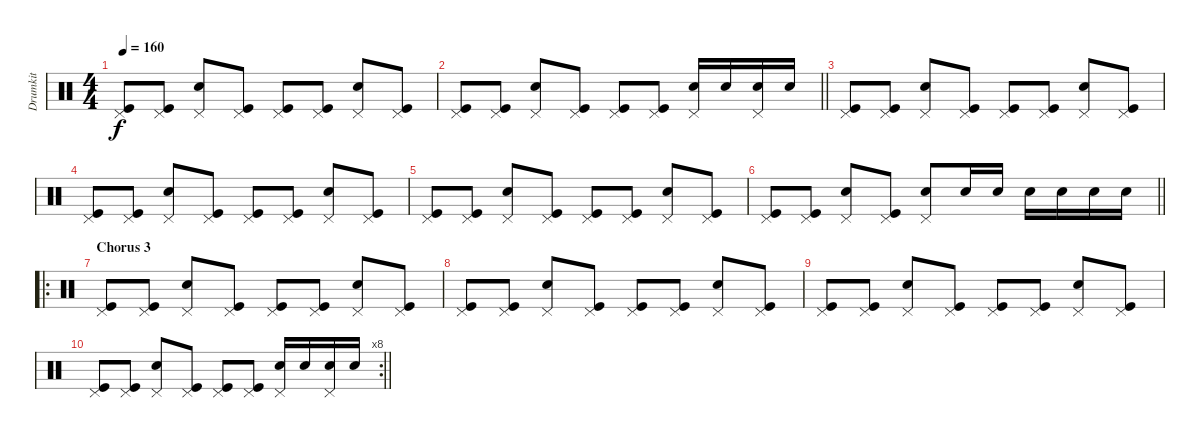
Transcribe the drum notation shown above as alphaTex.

\track ("Drumkit" "Drumkit") {instrument percussion}
\staff {score}
\articulation defaults
\ts (4 4)
\tempo 160
\clef neutral
\ks c
("Pedal Hi-Hat (hit)" "Kick (hit)").8{dy f} ("Pedal Hi-Hat (hit)" "Kick (hit)").8 ("Pedal Hi-Hat (hit)" "Snare (hit) 2").8 ("Pedal Hi-Hat (hit)" "Kick (hit)").8 ("Pedal Hi-Hat (hit)" "Kick (hit)").8 ("Pedal Hi-Hat (hit)" "Kick (hit)").8 ("Pedal Hi-Hat (hit)" "Snare (hit) 2").8 ("Pedal Hi-Hat (hit)" "Kick (hit)").8 |
\barLineRight lightlight
("Pedal Hi-Hat (hit)" "Kick (hit)").8 ("Pedal Hi-Hat (hit)" "Kick (hit)").8 ("Pedal Hi-Hat (hit)" "Snare (hit) 2").8 ("Pedal Hi-Hat (hit)" "Kick (hit)").8 ("Pedal Hi-Hat (hit)" "Kick (hit)").8 ("Pedal Hi-Hat (hit)" "Kick (hit)").8 ("Pedal Hi-Hat (hit)" "Snare (hit) 2").16 "Snare (hit) 2".16 ("Pedal Hi-Hat (hit)" "Snare (hit) 2").16 "Snare (hit) 2".16 |
("Pedal Hi-Hat (hit)" "Kick (hit)").8 ("Pedal Hi-Hat (hit)" "Kick (hit)").8 ("Pedal Hi-Hat (hit)" "Snare (hit) 2").8 ("Pedal Hi-Hat (hit)" "Kick (hit)").8 ("Pedal Hi-Hat (hit)" "Kick (hit)").8 ("Pedal Hi-Hat (hit)" "Kick (hit)").8 ("Pedal Hi-Hat (hit)" "Snare (hit) 2").8 ("Pedal Hi-Hat (hit)" "Kick (hit)").8 |
("Pedal Hi-Hat (hit)" "Kick (hit)").8 ("Pedal Hi-Hat (hit)" "Kick (hit)").8 ("Pedal Hi-Hat (hit)" "Snare (hit) 2").8 ("Pedal Hi-Hat (hit)" "Kick (hit)").8 ("Pedal Hi-Hat (hit)" "Kick (hit)").8 ("Pedal Hi-Hat (hit)" "Kick (hit)").8 ("Pedal Hi-Hat (hit)" "Snare (hit) 2").8 ("Pedal Hi-Hat (hit)" "Kick (hit)").8 |
("Pedal Hi-Hat (hit)" "Kick (hit)").8 ("Pedal Hi-Hat (hit)" "Kick (hit)").8 ("Pedal Hi-Hat (hit)" "Snare (hit) 2").8 ("Pedal Hi-Hat (hit)" "Kick (hit)").8 ("Pedal Hi-Hat (hit)" "Kick (hit)").8 ("Pedal Hi-Hat (hit)" "Kick (hit)").8 ("Pedal Hi-Hat (hit)" "Snare (hit) 2").8 ("Pedal Hi-Hat (hit)" "Kick (hit)").8 |
\barLineRight lightlight
("Pedal Hi-Hat (hit)" "Kick (hit)").8 ("Pedal Hi-Hat (hit)" "Kick (hit)").8 ("Pedal Hi-Hat (hit)" "Snare (hit) 2").8 ("Pedal Hi-Hat (hit)" "Kick (hit)").8 ("Pedal Hi-Hat (hit)" "Snare (hit) 2").8 "Snare (hit) 2".16 "Snare (hit) 2".16 "Snare (hit) 2".16 "Snare (hit) 2".16 "Snare (hit) 2".16 "Snare (hit) 2".16 |
\ro
\section ("" "Chorus 3")
("Pedal Hi-Hat (hit)" "Kick (hit)").8 ("Pedal Hi-Hat (hit)" "Kick (hit)").8 ("Pedal Hi-Hat (hit)" "Snare (hit) 2").8 ("Pedal Hi-Hat (hit)" "Kick (hit)").8 ("Pedal Hi-Hat (hit)" "Kick (hit)").8 ("Pedal Hi-Hat (hit)" "Kick (hit)").8 ("Pedal Hi-Hat (hit)" "Snare (hit) 2").8 ("Pedal Hi-Hat (hit)" "Kick (hit)").8 |
("Pedal Hi-Hat (hit)" "Kick (hit)").8 ("Pedal Hi-Hat (hit)" "Kick (hit)").8 ("Pedal Hi-Hat (hit)" "Snare (hit) 2").8 ("Pedal Hi-Hat (hit)" "Kick (hit)").8 ("Pedal Hi-Hat (hit)" "Kick (hit)").8 ("Pedal Hi-Hat (hit)" "Kick (hit)").8 ("Pedal Hi-Hat (hit)" "Snare (hit) 2").8 ("Pedal Hi-Hat (hit)" "Kick (hit)").8 |
("Pedal Hi-Hat (hit)" "Kick (hit)").8 ("Pedal Hi-Hat (hit)" "Kick (hit)").8 ("Pedal Hi-Hat (hit)" "Snare (hit) 2").8 ("Pedal Hi-Hat (hit)" "Kick (hit)").8 ("Pedal Hi-Hat (hit)" "Kick (hit)").8 ("Pedal Hi-Hat (hit)" "Kick (hit)").8 ("Pedal Hi-Hat (hit)" "Snare (hit) 2").8 ("Pedal Hi-Hat (hit)" "Kick (hit)").8 |
\rc 8
\barLineRight lightlight
("Pedal Hi-Hat (hit)" "Kick (hit)").8 ("Pedal Hi-Hat (hit)" "Kick (hit)").8 ("Pedal Hi-Hat (hit)" "Snare (hit) 2").8 ("Pedal Hi-Hat (hit)" "Kick (hit)").8 ("Pedal Hi-Hat (hit)" "Kick (hit)").8 ("Pedal Hi-Hat (hit)" "Kick (hit)").8 ("Pedal Hi-Hat (hit)" "Snare (hit) 2").16 "Snare (hit) 2".16 ("Pedal Hi-Hat (hit)" "Snare (hit) 2").16 "Snare (hit) 2".16
